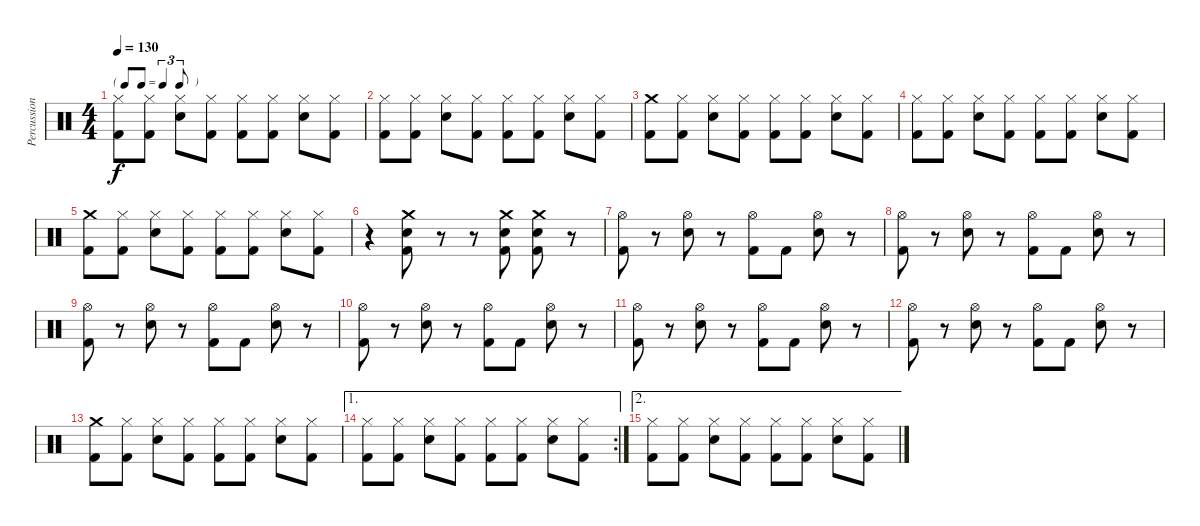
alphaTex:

\track ("Percussion" "Percussion") {instrument percussion}
\staff {score}
\articulation defaults
\ts (4 4)
\tf triplet8th
\tempo 130
\clef neutral
\ks c
("Kick (hit) 2" "Hi-Hat (closed)").8{dy f} ("Kick (hit) 2" "Hi-Hat (closed)").8 ("Electric Snare (hit)" "Hi-Hat (closed)").8 ("Kick (hit) 2" "Hi-Hat (closed)").8 ("Kick (hit) 2" "Hi-Hat (closed)").8 ("Kick (hit) 2" "Hi-Hat (closed)").8 ("Electric Snare (hit)" "Hi-Hat (closed)").8 ("Kick (hit) 2" "Hi-Hat (closed)").8 |
("Kick (hit) 2" "Hi-Hat (closed)").8 ("Kick (hit) 2" "Hi-Hat (closed)").8 ("Electric Snare (hit)" "Hi-Hat (closed)").8 ("Kick (hit) 2" "Hi-Hat (closed)").8 ("Kick (hit) 2" "Hi-Hat (closed)").8 ("Kick (hit) 2" "Hi-Hat (closed)").8 ("Electric Snare (hit)" "Hi-Hat (closed)").8 ("Kick (hit) 2" "Hi-Hat (closed)").8 |
("Kick (hit) 2" "Crash medium (hit)").8 ("Kick (hit) 2" "Hi-Hat (closed)").8 ("Electric Snare (hit)" "Hi-Hat (closed)").8 ("Kick (hit) 2" "Hi-Hat (closed)").8 ("Kick (hit) 2" "Hi-Hat (closed)").8 ("Kick (hit) 2" "Hi-Hat (closed)").8 ("Electric Snare (hit)" "Hi-Hat (closed)").8 ("Kick (hit) 2" "Hi-Hat (closed)").8 |
("Kick (hit) 2" "Hi-Hat (closed)").8 ("Kick (hit) 2" "Hi-Hat (closed)").8 ("Electric Snare (hit)" "Hi-Hat (closed)").8 ("Kick (hit) 2" "Hi-Hat (closed)").8 ("Kick (hit) 2" "Hi-Hat (closed)").8 ("Kick (hit) 2" "Hi-Hat (closed)").8 ("Electric Snare (hit)" "Hi-Hat (closed)").8 ("Kick (hit) 2" "Hi-Hat (closed)").8 |
("Kick (hit) 2" "Crash medium (hit)").8 ("Kick (hit) 2" "Hi-Hat (closed)").8 ("Electric Snare (hit)" "Hi-Hat (closed)").8 ("Kick (hit) 2" "Hi-Hat (closed)").8 ("Kick (hit) 2" "Hi-Hat (closed)").8 ("Kick (hit) 2" "Hi-Hat (closed)").8 ("Electric Snare (hit)" "Hi-Hat (closed)").8 ("Kick (hit) 2" "Hi-Hat (closed)").8 |
r.4 ("Electric Snare (hit)" "Crash medium (hit)" "Kick (hit) 2").8 r.8 r.8 ("Electric Snare (hit)" "Crash medium (hit)" "Kick (hit) 2").8 ("Electric Snare (hit)" "Crash medium (hit)" "Kick (hit) 2").8 r.8 |
("Kick (hit) 2" "Hi-Hat (open)").8 r.8 ("Electric Snare (hit)" "Hi-Hat (open)").8 r.8 ("Kick (hit) 2" "Hi-Hat (open)").8 "Kick (hit) 2".8 ("Electric Snare (hit)" "Hi-Hat (open)").8 r.8 |
("Kick (hit) 2" "Hi-Hat (open)").8 r.8 ("Electric Snare (hit)" "Hi-Hat (open)").8 r.8 ("Kick (hit) 2" "Hi-Hat (open)").8 "Kick (hit) 2".8 ("Electric Snare (hit)" "Hi-Hat (open)").8 r.8 |
("Kick (hit) 2" "Hi-Hat (open)").8 r.8 ("Electric Snare (hit)" "Hi-Hat (open)").8 r.8 ("Kick (hit) 2" "Hi-Hat (open)").8 "Kick (hit) 2".8 ("Electric Snare (hit)" "Hi-Hat (open)").8 r.8 |
("Kick (hit) 2" "Hi-Hat (open)").8 r.8 ("Electric Snare (hit)" "Hi-Hat (open)").8 r.8 ("Kick (hit) 2" "Hi-Hat (open)").8 "Kick (hit) 2".8 ("Electric Snare (hit)" "Hi-Hat (open)").8 r.8 |
("Kick (hit) 2" "Hi-Hat (open)").8 r.8 ("Electric Snare (hit)" "Hi-Hat (open)").8 r.8 ("Kick (hit) 2" "Hi-Hat (open)").8 "Kick (hit) 2".8 ("Electric Snare (hit)" "Hi-Hat (open)").8 r.8 |
("Kick (hit) 2" "Hi-Hat (open)").8 r.8 ("Electric Snare (hit)" "Hi-Hat (open)").8 r.8 ("Kick (hit) 2" "Hi-Hat (open)").8 "Kick (hit) 2".8 ("Electric Snare (hit)" "Hi-Hat (open)").8 r.8 |
("Kick (hit) 2" "Crash medium (hit)").8 ("Kick (hit) 2" "Hi-Hat (closed)").8 ("Electric Snare (hit)" "Hi-Hat (closed)").8 ("Kick (hit) 2" "Hi-Hat (closed)").8 ("Kick (hit) 2" "Hi-Hat (closed)").8 ("Kick (hit) 2" "Hi-Hat (closed)").8 ("Electric Snare (hit)" "Hi-Hat (closed)").8 ("Kick (hit) 2" "Hi-Hat (closed)").8 |
\ae 1
\rc 2
("Kick (hit) 2" "Hi-Hat (closed)").8 ("Kick (hit) 2" "Hi-Hat (closed)").8 ("Electric Snare (hit)" "Hi-Hat (closed)").8 ("Kick (hit) 2" "Hi-Hat (closed)").8 ("Kick (hit) 2" "Hi-Hat (closed)").8 ("Kick (hit) 2" "Hi-Hat (closed)").8 ("Electric Snare (hit)" "Hi-Hat (closed)").8 ("Kick (hit) 2" "Hi-Hat (closed)").8 |
\ae 2
("Kick (hit) 2" "Hi-Hat (closed)").8 ("Kick (hit) 2" "Hi-Hat (closed)").8 ("Electric Snare (hit)" "Hi-Hat (closed)").8 ("Kick (hit) 2" "Hi-Hat (closed)").8 ("Kick (hit) 2" "Hi-Hat (closed)").8 ("Kick (hit) 2" "Hi-Hat (closed)").8 ("Electric Snare (hit)" "Hi-Hat (closed)").8 ("Kick (hit) 2" "Hi-Hat (closed)").8
